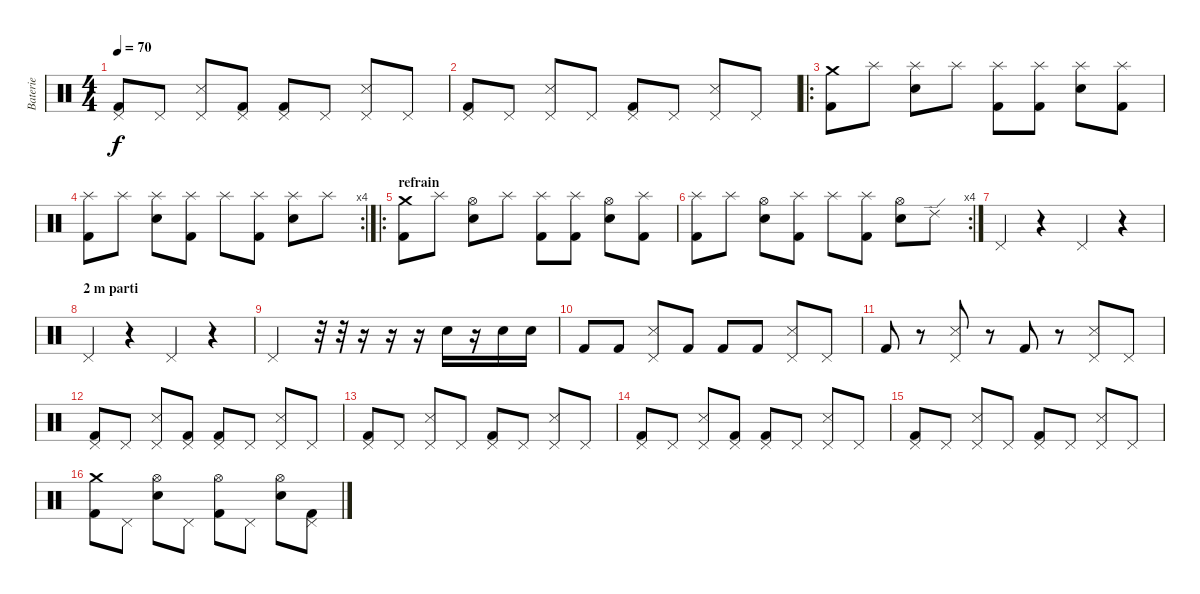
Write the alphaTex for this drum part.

\track ("Baterie" "Baterie") {instrument percussion}
\staff {score}
\articulation defaults
\ts (4 4)
\tempo 70
\clef neutral
\ks c
("Pedal Hi-Hat (hit)" "Kick (hit) 2").8{dy f} "Pedal Hi-Hat (hit)".8 ("Pedal Hi-Hat (hit)" "Snare (side stick) 3").8 ("Pedal Hi-Hat (hit)" "Kick (hit) 2").8 ("Pedal Hi-Hat (hit)" "Kick (hit) 2").8 "Pedal Hi-Hat (hit)".8 ("Pedal Hi-Hat (hit)" "Snare (side stick) 3").8 "Pedal Hi-Hat (hit)".8 |
("Pedal Hi-Hat (hit)" "Kick (hit) 2").8 "Pedal Hi-Hat (hit)".8 ("Pedal Hi-Hat (hit)" "Snare (side stick) 3").8 "Pedal Hi-Hat (hit)".8 ("Pedal Hi-Hat (hit)" "Kick (hit) 2").8 "Pedal Hi-Hat (hit)".8 ("Pedal Hi-Hat (hit)" "Snare (side stick) 3").8 "Pedal Hi-Hat (hit)".8 |
\ro
("Crash medium (hit)" "Kick (hit) 2").8{volume 12} "Splash (hit)".8 ("Splash (hit)" "Electric Snare (hit)").8 "Splash (hit)".8 ("Splash (hit)" "Kick (hit) 2").8 ("Splash (hit)" "Kick (hit) 2").8 ("Splash (hit)" "Electric Snare (hit)").8 ("Splash (hit)" "Kick (hit) 2").8 |
\rc 4
("Splash (hit)" "Kick (hit) 2").8 "Splash (hit)".8 ("Splash (hit)" "Electric Snare (hit)").8 ("Splash (hit)" "Kick (hit) 2").8 "Splash (hit)".8 ("Splash (hit)" "Kick (hit) 2").8 ("Splash (hit)" "Electric Snare (hit)").8 "Splash (hit)".8 |
\ro
\section ("" "refrain")
("Crash medium (hit)" "Kick (hit) 2").8 "Splash (hit)".8 ("Hi-Hat (open)" "Electric Snare (hit)").8 "Splash (hit)".8 ("Splash (hit)" "Kick (hit) 2").8 ("Splash (hit)" "Kick (hit) 2").8 ("Hi-Hat (open)" "Electric Snare (hit)").8 ("Splash (hit)" "Kick (hit) 2").8 |
\rc 4
("Splash (hit)" "Kick (hit) 2").8 "Splash (hit)".8 ("Hi-Hat (open)" "Electric Snare (hit)").8 ("Splash (hit)" "Kick (hit) 2").8 "Splash (hit)".8 ("Splash (hit)" "Kick (hit) 2").8 ("Hi-Hat (open)" "Electric Snare (hit)").8 "Ride (edge) 2".8 |
"Pedal Hi-Hat (hit)".4 r.4 "Pedal Hi-Hat (hit)".4 r.4 |
\section ("" "2 m parti")
"Pedal Hi-Hat (hit)".4 r.4 "Pedal Hi-Hat (hit)".4 r.4 |
"Pedal Hi-Hat (hit)".2 r.32 r.32 r.16 r.16 r.16 "Electric Snare (hit)".16 r.16 "Electric Snare (hit)".16 "Electric Snare (hit)".16 |
"Kick (hit) 2".8 "Kick (hit) 2".8 ("Pedal Hi-Hat (hit)" "Snare (side stick) 3").8 "Kick (hit) 2".8 "Kick (hit) 2".8 "Kick (hit) 2".8 ("Pedal Hi-Hat (hit)" "Snare (side stick) 3").8 "Pedal Hi-Hat (hit)".8 |
"Kick (hit) 2".8 r.8 ("Pedal Hi-Hat (hit)" "Snare (side stick) 3").8 r.8 "Kick (hit) 2".8 r.8 ("Pedal Hi-Hat (hit)" "Snare (side stick) 3").8 "Pedal Hi-Hat (hit)".8 |
("Pedal Hi-Hat (hit)" "Kick (hit) 2").8 "Pedal Hi-Hat (hit)".8 ("Pedal Hi-Hat (hit)" "Snare (side stick) 3").8 ("Pedal Hi-Hat (hit)" "Kick (hit) 2").8 ("Pedal Hi-Hat (hit)" "Kick (hit) 2").8 "Pedal Hi-Hat (hit)".8 ("Pedal Hi-Hat (hit)" "Snare (side stick) 3").8 "Pedal Hi-Hat (hit)".8 |
("Pedal Hi-Hat (hit)" "Kick (hit) 2").8 "Pedal Hi-Hat (hit)".8 ("Pedal Hi-Hat (hit)" "Snare (side stick) 3").8 "Pedal Hi-Hat (hit)".8 ("Pedal Hi-Hat (hit)" "Kick (hit) 2").8 "Pedal Hi-Hat (hit)".8 ("Pedal Hi-Hat (hit)" "Snare (side stick) 3").8 "Pedal Hi-Hat (hit)".8 |
("Pedal Hi-Hat (hit)" "Kick (hit) 2").8 "Pedal Hi-Hat (hit)".8 ("Pedal Hi-Hat (hit)" "Snare (side stick) 3").8 ("Pedal Hi-Hat (hit)" "Kick (hit) 2").8 ("Pedal Hi-Hat (hit)" "Kick (hit) 2").8 "Pedal Hi-Hat (hit)".8 ("Pedal Hi-Hat (hit)" "Snare (side stick) 3").8 "Pedal Hi-Hat (hit)".8 |
("Pedal Hi-Hat (hit)" "Kick (hit) 2").8 "Pedal Hi-Hat (hit)".8 ("Pedal Hi-Hat (hit)" "Snare (side stick) 3").8 "Pedal Hi-Hat (hit)".8 ("Pedal Hi-Hat (hit)" "Kick (hit) 2").8 "Pedal Hi-Hat (hit)".8 ("Pedal Hi-Hat (hit)" "Snare (side stick) 3").8 "Pedal Hi-Hat (hit)".8 |
("Crash medium (hit)" "Kick (hit) 2").8 "Pedal Hi-Hat (hit)".8 ("Hi-Hat (open)" "Electric Snare (hit)").8 "Pedal Hi-Hat (hit)".8 ("Hi-Hat (open)" "Kick (hit) 2").8 "Pedal Hi-Hat (hit)".8 ("Hi-Hat (open)" "Electric Snare (hit)").8 ("Pedal Hi-Hat (hit)" "Kick (hit) 2").8
